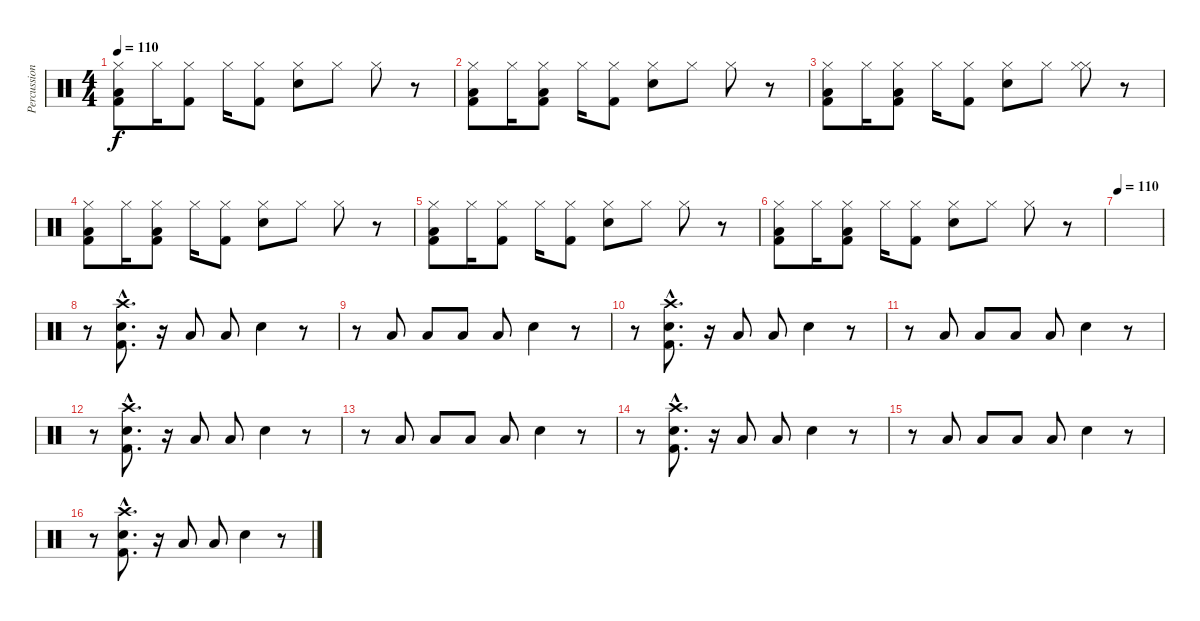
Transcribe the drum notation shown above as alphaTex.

\track ("Percussioni" "Percussion") {instrument percussion}
\staff {score}
\articulation defaults
\ts (4 4)
\tempo 110
\clef neutral
\ks c
("Hi-Hat (closed)" "Low Tom (hit)" "Kick (hit) 2").8{dy f} "Hi-Hat (closed)".16 ("Hi-Hat (closed)" "Kick (hit) 2").8 "Hi-Hat (closed)".16 ("Hi-Hat (closed)" "Kick (hit) 2").8 ("Hi-Hat (closed)" "Electric Snare (hit)").8 "Hi-Hat (closed)".8 "Hi-Hat (closed)".8 r.8 |
("Hi-Hat (closed)" "Low Tom (hit)" "Kick (hit) 2").8 "Hi-Hat (closed)".16 ("Hi-Hat (closed)" "Low Tom (hit)" "Kick (hit) 2").8 "Hi-Hat (closed)".16 ("Hi-Hat (closed)" "Kick (hit) 2").8 ("Hi-Hat (closed)" "Electric Snare (hit)").8 "Hi-Hat (closed)".8 "Hi-Hat (closed)".8 r.8 |
("Hi-Hat (closed)" "Low Tom (hit)" "Kick (hit) 2").8 "Hi-Hat (closed)".16 ("Hi-Hat (closed)" "Low Tom (hit)" "Kick (hit) 2").8 "Hi-Hat (closed)".16 ("Hi-Hat (closed)" "Kick (hit) 2").8 ("Hi-Hat (closed)" "Electric Snare (hit)").8 "Hi-Hat (closed)".8 ("Hi-Hat (closed)" "Hi-Hat (closed)").8 r.8 |
("Hi-Hat (closed)" "Low Tom (hit)" "Kick (hit) 2").8 "Hi-Hat (closed)".16 ("Hi-Hat (closed)" "Low Tom (hit)" "Kick (hit) 2").8 "Hi-Hat (closed)".16 ("Hi-Hat (closed)" "Kick (hit) 2").8 ("Hi-Hat (closed)" "Electric Snare (hit)").8 "Hi-Hat (closed)".8 "Hi-Hat (closed)".8 r.8 |
("Hi-Hat (closed)" "Low Tom (hit)" "Kick (hit) 2").8 "Hi-Hat (closed)".16 ("Hi-Hat (closed)" "Kick (hit) 2").8 "Hi-Hat (closed)".16 ("Hi-Hat (closed)" "Kick (hit) 2").8 ("Hi-Hat (closed)" "Electric Snare (hit)").8 "Hi-Hat (closed)".8 "Hi-Hat (closed)".8 r.8 |
("Hi-Hat (closed)" "Low Tom (hit)" "Kick (hit) 2").8 "Hi-Hat (closed)".16 ("Hi-Hat (closed)" "Low Tom (hit)" "Kick (hit) 2").8 "Hi-Hat (closed)".16 ("Hi-Hat (closed)" "Kick (hit) 2").8 ("Hi-Hat (closed)" "Electric Snare (hit)").8 "Hi-Hat (closed)".8 "Hi-Hat (closed)".8 r.8 |
\tempo 110
|
r.8 ("Crash high (hit)"{hac} "Electric Snare (hit)"{hac} "Kick (hit) 2"{hac}).8{d} r.16 "Low Tom (hit)".8 "Low Tom (hit)".8 "Electric Snare (hit)".4 r.8 |
r.8 "Low Tom (hit)".8 "Low Tom (hit)".8 "Low Tom (hit)".8 "Low Tom (hit)".8 "Electric Snare (hit)".4 r.8 |
r.8 ("Crash high (hit)"{hac} "Electric Snare (hit)"{hac} "Kick (hit) 2"{hac}).8{d} r.16 "Low Tom (hit)".8 "Low Tom (hit)".8 "Electric Snare (hit)".4 r.8 |
r.8 "Low Tom (hit)".8 "Low Tom (hit)".8 "Low Tom (hit)".8 "Low Tom (hit)".8 "Electric Snare (hit)".4 r.8 |
r.8 ("Crash high (hit)"{hac} "Electric Snare (hit)"{hac} "Kick (hit) 2"{hac}).8{d} r.16 "Low Tom (hit)".8 "Low Tom (hit)".8 "Electric Snare (hit)".4 r.8 |
r.8 "Low Tom (hit)".8 "Low Tom (hit)".8 "Low Tom (hit)".8 "Low Tom (hit)".8 "Electric Snare (hit)".4 r.8 |
r.8 ("Crash high (hit)"{hac} "Electric Snare (hit)"{hac} "Kick (hit) 2"{hac}).8{d} r.16 "Low Tom (hit)".8 "Low Tom (hit)".8 "Electric Snare (hit)".4 r.8 |
r.8 "Low Tom (hit)".8 "Low Tom (hit)".8 "Low Tom (hit)".8 "Low Tom (hit)".8 "Electric Snare (hit)".4 r.8 |
r.8 ("Crash high (hit)"{hac} "Electric Snare (hit)"{hac} "Kick (hit) 2"{hac}).8{d} r.16 "Low Tom (hit)".8 "Low Tom (hit)".8 "Electric Snare (hit)".4 r.8
